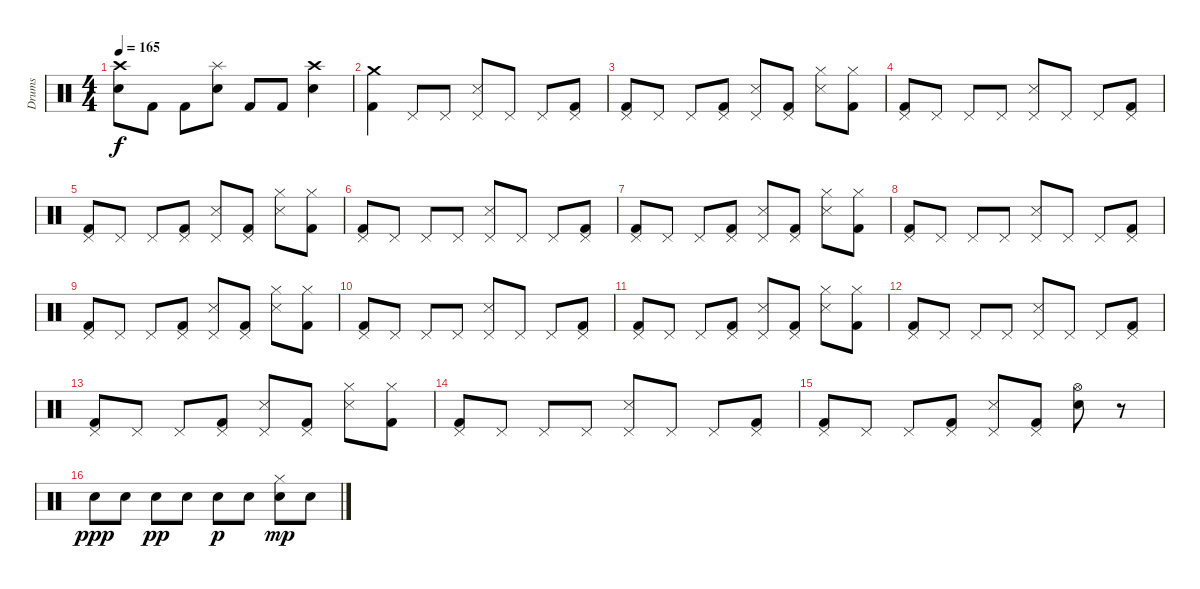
\track ("Drums" "Drums") {instrument percussion}
\staff {score}
\articulation defaults
\ts (4 4)
\tempo 165
\clef neutral
\ks c
("Crash high (hit)" "Snare (hit) 2").8{dy f} "Kick (hit) 2".8 "Kick (hit) 2".8 ("Splash (hit)" "Snare (hit) 2").8 "Kick (hit) 2".8 "Kick (hit) 2".8 ("Crash high (hit)" "Snare (hit) 2").4 |
("Crash medium (hit)" "Kick (hit) 2").4 "Pedal Hi-Hat (hit)".8 "Pedal Hi-Hat (hit)".8 ("Pedal Hi-Hat (hit)" "Metronome (hit)").8 "Pedal Hi-Hat (hit)".8 "Pedal Hi-Hat (hit)".8 ("Pedal Hi-Hat (hit)" "Kick (hit) 2").8 |
("Pedal Hi-Hat (hit)" "Kick (hit) 2").8 "Pedal Hi-Hat (hit)".8 "Pedal Hi-Hat (hit)".8 ("Pedal Hi-Hat (hit)" "Kick (hit) 2").8 ("Pedal Hi-Hat (hit)" "Metronome (hit)").8 ("Pedal Hi-Hat (hit)" "Kick (hit) 2").8 ("Hi-Hat (closed)" "Metronome (hit)").8 ("Hi-Hat (closed)" "Kick (hit) 2").8 |
("Pedal Hi-Hat (hit)" "Kick (hit) 2").8 "Pedal Hi-Hat (hit)".8 "Pedal Hi-Hat (hit)".8 "Pedal Hi-Hat (hit)".8 ("Pedal Hi-Hat (hit)" "Metronome (hit)").8 "Pedal Hi-Hat (hit)".8 "Pedal Hi-Hat (hit)".8 ("Pedal Hi-Hat (hit)" "Kick (hit) 2").8 |
("Pedal Hi-Hat (hit)" "Kick (hit) 2").8 "Pedal Hi-Hat (hit)".8 "Pedal Hi-Hat (hit)".8 ("Pedal Hi-Hat (hit)" "Kick (hit) 2").8 ("Pedal Hi-Hat (hit)" "Metronome (hit)").8 ("Pedal Hi-Hat (hit)" "Kick (hit) 2").8 ("Hi-Hat (closed)" "Metronome (hit)").8 ("Hi-Hat (closed)" "Kick (hit) 2").8 |
("Pedal Hi-Hat (hit)" "Kick (hit) 2").8 "Pedal Hi-Hat (hit)".8 "Pedal Hi-Hat (hit)".8 "Pedal Hi-Hat (hit)".8 ("Pedal Hi-Hat (hit)" "Metronome (hit)").8 "Pedal Hi-Hat (hit)".8 "Pedal Hi-Hat (hit)".8 ("Pedal Hi-Hat (hit)" "Kick (hit) 2").8 |
("Pedal Hi-Hat (hit)" "Kick (hit) 2").8 "Pedal Hi-Hat (hit)".8 "Pedal Hi-Hat (hit)".8 ("Pedal Hi-Hat (hit)" "Kick (hit) 2").8 ("Pedal Hi-Hat (hit)" "Metronome (hit)").8 ("Pedal Hi-Hat (hit)" "Kick (hit) 2").8 ("Hi-Hat (closed)" "Metronome (hit)").8 ("Hi-Hat (closed)" "Kick (hit) 2").8 |
("Pedal Hi-Hat (hit)" "Kick (hit) 2").8 "Pedal Hi-Hat (hit)".8 "Pedal Hi-Hat (hit)".8 "Pedal Hi-Hat (hit)".8 ("Pedal Hi-Hat (hit)" "Metronome (hit)").8 "Pedal Hi-Hat (hit)".8 "Pedal Hi-Hat (hit)".8 ("Pedal Hi-Hat (hit)" "Kick (hit) 2").8 |
("Pedal Hi-Hat (hit)" "Kick (hit) 2").8 "Pedal Hi-Hat (hit)".8 "Pedal Hi-Hat (hit)".8 ("Pedal Hi-Hat (hit)" "Kick (hit) 2").8 ("Pedal Hi-Hat (hit)" "Metronome (hit)").8 ("Pedal Hi-Hat (hit)" "Kick (hit) 2").8 ("Hi-Hat (closed)" "Metronome (hit)").8 ("Hi-Hat (closed)" "Kick (hit) 2").8 |
("Pedal Hi-Hat (hit)" "Kick (hit) 2").8 "Pedal Hi-Hat (hit)".8 "Pedal Hi-Hat (hit)".8 "Pedal Hi-Hat (hit)".8 ("Pedal Hi-Hat (hit)" "Metronome (hit)").8 "Pedal Hi-Hat (hit)".8 "Pedal Hi-Hat (hit)".8 ("Pedal Hi-Hat (hit)" "Kick (hit) 2").8 |
("Pedal Hi-Hat (hit)" "Kick (hit) 2").8 "Pedal Hi-Hat (hit)".8 "Pedal Hi-Hat (hit)".8 ("Pedal Hi-Hat (hit)" "Kick (hit) 2").8 ("Pedal Hi-Hat (hit)" "Metronome (hit)").8 ("Pedal Hi-Hat (hit)" "Kick (hit) 2").8 ("Hi-Hat (closed)" "Metronome (hit)").8 ("Hi-Hat (closed)" "Kick (hit) 2").8 |
("Pedal Hi-Hat (hit)" "Kick (hit) 2").8 "Pedal Hi-Hat (hit)".8 "Pedal Hi-Hat (hit)".8 "Pedal Hi-Hat (hit)".8 ("Pedal Hi-Hat (hit)" "Metronome (hit)").8 "Pedal Hi-Hat (hit)".8 "Pedal Hi-Hat (hit)".8 ("Pedal Hi-Hat (hit)" "Kick (hit) 2").8 |
("Pedal Hi-Hat (hit)" "Kick (hit) 2").8 "Pedal Hi-Hat (hit)".8 "Pedal Hi-Hat (hit)".8 ("Pedal Hi-Hat (hit)" "Kick (hit) 2").8 ("Pedal Hi-Hat (hit)" "Metronome (hit)").8 ("Pedal Hi-Hat (hit)" "Kick (hit) 2").8 ("Hi-Hat (closed)" "Metronome (hit)").8 ("Hi-Hat (closed)" "Kick (hit) 2").8 |
("Pedal Hi-Hat (hit)" "Kick (hit) 2").8 "Pedal Hi-Hat (hit)".8 "Pedal Hi-Hat (hit)".8 "Pedal Hi-Hat (hit)".8 ("Pedal Hi-Hat (hit)" "Metronome (hit)").8 "Pedal Hi-Hat (hit)".8 "Pedal Hi-Hat (hit)".8 ("Pedal Hi-Hat (hit)" "Kick (hit) 2").8 |
("Pedal Hi-Hat (hit)" "Kick (hit) 2").8 "Pedal Hi-Hat (hit)".8 "Pedal Hi-Hat (hit)".8 ("Pedal Hi-Hat (hit)" "Kick (hit) 2").8 ("Pedal Hi-Hat (hit)" "Metronome (hit)").8 ("Pedal Hi-Hat (hit)" "Kick (hit) 2").8 ("Hi-Hat (open)" "Snare (hit) 2").8 r.8 |
"Snare (hit) 2".8{dy ppp} "Snare (hit) 2".8 "Snare (hit) 2".8{dy pp} "Snare (hit) 2".8 "Snare (hit) 2".8{dy p} "Snare (hit) 2".8 ("Hi-Hat (closed)" "Snare (hit) 2").8{dy mp} "Snare (hit) 2".8
